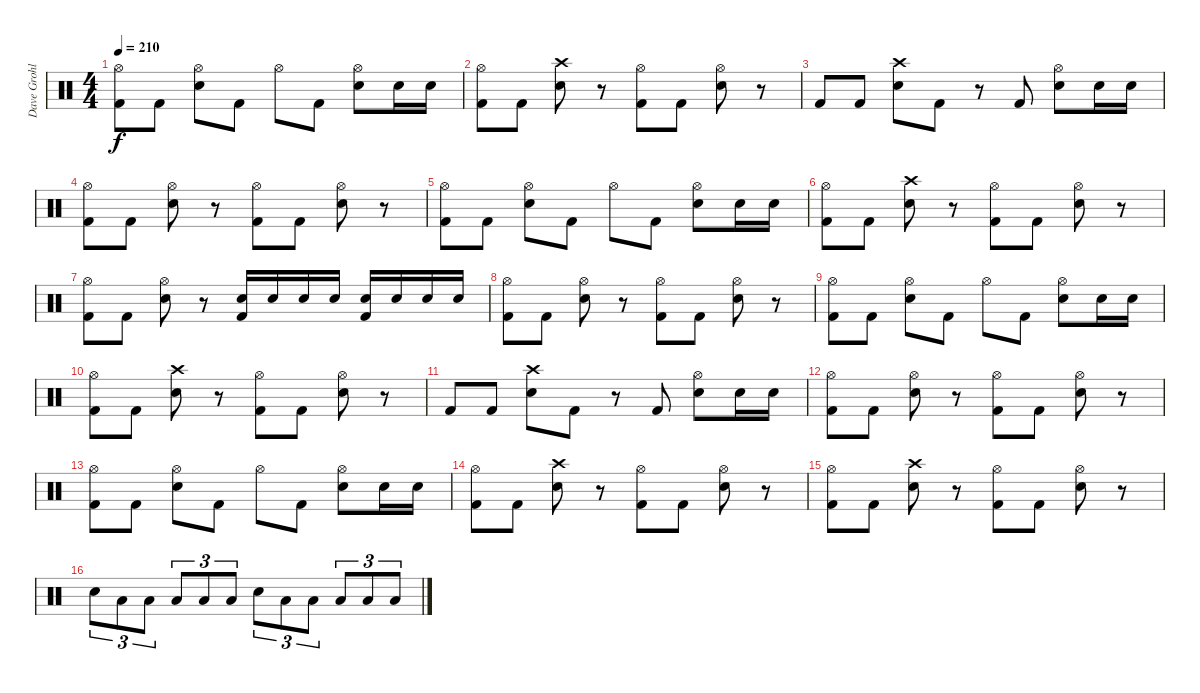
\track ("Dave Grohl" "Dave Grohl") {instrument percussion}
\staff {score}
\articulation defaults
\ts (4 4)
\tempo 210
\clef neutral
\ks c
("Hi-Hat (open)" "Kick (hit) 2").8{dy f} "Kick (hit) 2".8 ("Hi-Hat (open)" "Snare (hit) 2").8 "Kick (hit) 2".8 "Hi-Hat (open)".8 "Kick (hit) 2".8 ("Hi-Hat (open)" "Snare (hit) 2").8 "Snare (hit) 2".16 "Snare (hit) 2".16 |
("Hi-Hat (open)" "Kick (hit) 2").8 "Kick (hit) 2".8 ("Crash high (hit)" "Snare (hit) 2").8 r.8 ("Hi-Hat (open)" "Kick (hit) 2").8 "Kick (hit) 2".8 ("Hi-Hat (open)" "Snare (hit) 2").8 r.8 |
"Kick (hit) 2".8 "Kick (hit) 2".8 ("Crash high (hit)" "Snare (hit) 2").8 "Kick (hit) 2".8 r.8 "Kick (hit) 2".8 ("Hi-Hat (open)" "Snare (hit) 2").8 "Snare (hit) 2".16 "Snare (hit) 2".16 |
("Hi-Hat (open)" "Kick (hit) 2").8 "Kick (hit) 2".8 ("Hi-Hat (open)" "Snare (hit) 2").8 r.8 ("Hi-Hat (open)" "Kick (hit) 2").8 "Kick (hit) 2".8 ("Hi-Hat (open)" "Snare (hit) 2").8 r.8 |
("Hi-Hat (open)" "Kick (hit) 2").8 "Kick (hit) 2".8 ("Hi-Hat (open)" "Snare (hit) 2").8 "Kick (hit) 2".8 "Hi-Hat (open)".8 "Kick (hit) 2".8 ("Hi-Hat (open)" "Snare (hit) 2").8 "Snare (hit) 2".16 "Snare (hit) 2".16 |
("Hi-Hat (open)" "Kick (hit) 2").8 "Kick (hit) 2".8 ("Crash high (hit)" "Snare (hit) 2").8 r.8 ("Hi-Hat (open)" "Kick (hit) 2").8 "Kick (hit) 2".8 ("Hi-Hat (open)" "Snare (hit) 2").8 r.8 |
("Hi-Hat (open)" "Kick (hit) 2").8 "Kick (hit) 2".8 ("Hi-Hat (open)" "Snare (hit) 2").8 r.8 ("Snare (hit) 2" "Kick (hit) 2").16 "Snare (hit) 2".16 "Snare (hit) 2".16 "Snare (hit) 2".16 ("Snare (hit) 2" "Kick (hit) 2").16 "Snare (hit) 2".16 "Snare (hit) 2".16 "Snare (hit) 2".16 |
("Hi-Hat (open)" "Kick (hit) 2").8 "Kick (hit) 2".8 ("Hi-Hat (open)" "Snare (hit) 2").8 r.8 ("Hi-Hat (open)" "Kick (hit) 2").8 "Kick (hit) 2".8 ("Hi-Hat (open)" "Snare (hit) 2").8 r.8 |
("Hi-Hat (open)" "Kick (hit) 2").8 "Kick (hit) 2".8 ("Hi-Hat (open)" "Snare (hit) 2").8 "Kick (hit) 2".8 "Hi-Hat (open)".8 "Kick (hit) 2".8 ("Hi-Hat (open)" "Snare (hit) 2").8 "Snare (hit) 2".16 "Snare (hit) 2".16 |
("Hi-Hat (open)" "Kick (hit) 2").8 "Kick (hit) 2".8 ("Crash high (hit)" "Snare (hit) 2").8 r.8 ("Hi-Hat (open)" "Kick (hit) 2").8 "Kick (hit) 2".8 ("Hi-Hat (open)" "Snare (hit) 2").8 r.8 |
"Kick (hit) 2".8 "Kick (hit) 2".8 ("Crash high (hit)" "Snare (hit) 2").8 "Kick (hit) 2".8 r.8 "Kick (hit) 2".8 ("Hi-Hat (open)" "Snare (hit) 2").8 "Snare (hit) 2".16 "Snare (hit) 2".16 |
("Hi-Hat (open)" "Kick (hit) 2").8 "Kick (hit) 2".8 ("Hi-Hat (open)" "Snare (hit) 2").8 r.8 ("Hi-Hat (open)" "Kick (hit) 2").8 "Kick (hit) 2".8 ("Hi-Hat (open)" "Snare (hit) 2").8 r.8 |
("Hi-Hat (open)" "Kick (hit) 2").8 "Kick (hit) 2".8 ("Hi-Hat (open)" "Snare (hit) 2").8 "Kick (hit) 2".8 "Hi-Hat (open)".8 "Kick (hit) 2".8 ("Hi-Hat (open)" "Snare (hit) 2").8 "Snare (hit) 2".16 "Snare (hit) 2".16 |
("Hi-Hat (open)" "Kick (hit) 2").8 "Kick (hit) 2".8 ("Crash high (hit)" "Snare (hit) 2").8 r.8 ("Hi-Hat (open)" "Kick (hit) 2").8 "Kick (hit) 2".8 ("Hi-Hat (open)" "Snare (hit) 2").8 r.8 |
("Hi-Hat (open)" "Kick (hit) 2").8 "Kick (hit) 2".8 ("Crash high (hit)" "Snare (hit) 2").8 r.8 ("Hi-Hat (open)" "Kick (hit) 2").8 "Kick (hit) 2".8 ("Hi-Hat (open)" "Snare (hit) 2").8 r.8 |
"Snare (hit) 2".8{tu (3 2)} "Low Floor Tom (hit)".8{tu (3 2)} "Low Tom (hit)".8{tu (3 2)} "Low Floor Tom (hit)".8{tu (3 2)} "Low Tom (hit)".8{tu (3 2)} "Low Tom (hit)".8{tu (3 2)} "Snare (hit) 2".8{tu (3 2)} "Low Tom (hit)".8{tu (3 2)} "Low Floor Tom (hit)".8{tu (3 2)} "Low Floor Tom (hit)".8{tu (3 2)} "Low Tom (hit)".8{tu (3 2)} "Low Floor Tom (hit)".8{tu (3 2)}
